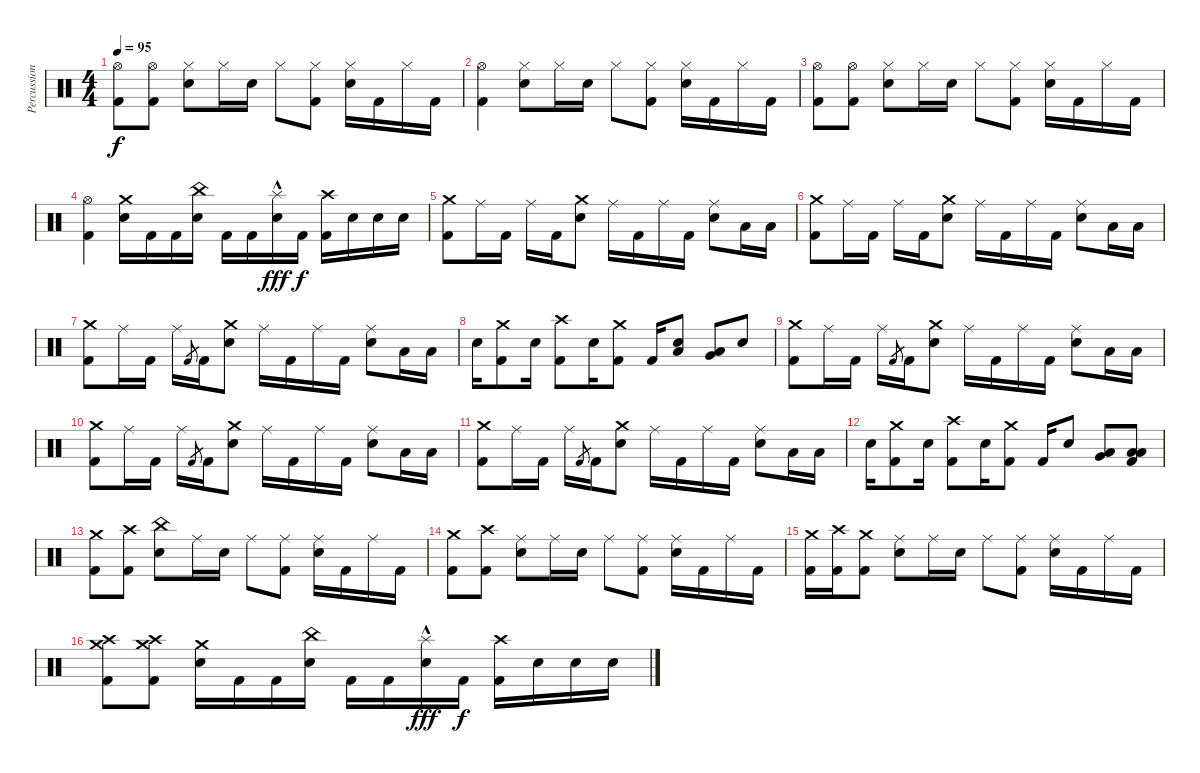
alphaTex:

\track ("Percussions" "Percussion") {instrument percussion}
\staff {score}
\articulation defaults
\ts (4 4)
\tempo 95
\clef neutral
\ks c
("Hi-Hat (open)" "Kick (hit) 2").8{dy f} ("Hi-Hat (open)" "Kick (hit) 2").8 ("Hi-Hat (closed)" "Electric Snare (hit)").8 "Hi-Hat (closed)".16 "Electric Snare (hit)".16 "Hi-Hat (closed)".8 ("Hi-Hat (closed)" "Kick (hit) 2").8 ("Hi-Hat (closed)" "Electric Snare (hit)").16 "Kick (hit) 2".16 "Hi-Hat (closed)".16 "Kick (hit) 2".16 |
("Hi-Hat (open)" "Kick (hit) 2").4 ("Hi-Hat (closed)" "Electric Snare (hit)").8 "Hi-Hat (closed)".16 "Electric Snare (hit)".16 "Hi-Hat (closed)".8 ("Hi-Hat (closed)" "Kick (hit) 2").8 ("Hi-Hat (closed)" "Electric Snare (hit)").16 "Kick (hit) 2".16 "Hi-Hat (closed)".16 "Kick (hit) 2".16 |
("Hi-Hat (open)" "Kick (hit) 2").8 ("Hi-Hat (open)" "Kick (hit) 2").8 ("Hi-Hat (closed)" "Electric Snare (hit)").8 "Hi-Hat (closed)".16 "Electric Snare (hit)".16 "Hi-Hat (closed)".8 ("Hi-Hat (closed)" "Kick (hit) 2").8 ("Hi-Hat (closed)" "Electric Snare (hit)").16 "Kick (hit) 2".16 "Hi-Hat (closed)".16 "Kick (hit) 2".16 |
("Hi-Hat (open)" "Kick (hit) 2").4 ("Crash medium (hit)" "Electric Snare (hit)").16 "Kick (hit) 2".16 "Kick (hit) 2".16 ("China (hit)" "Electric Snare (hit)").16 "Kick (hit) 2".16 "Kick (hit) 2".16 ("Splash (hit)"{hac} "Electric Snare (hit)").16{dy fff} "Kick (hit) 2".16{dy f} ("Crash high (hit)" "Kick (hit) 2").16 "Electric Snare (hit)".16 "Electric Snare (hit)".16 "Electric Snare (hit)".16 |
("Crash medium (hit)" "Kick (hit) 2").8 "Ride (middle)".16 "Kick (hit) 2".16 "Ride (middle)".16 "Kick (hit) 2".16 ("Crash medium (hit)" "Electric Snare (hit)").8 "Ride (middle)".16 "Kick (hit) 2".16 "Ride (middle)".16 "Kick (hit) 2".16 ("Ride (middle)" "Electric Snare (hit)").8 "Low Tom (hit)".16 "Low Tom (hit)".16 |
("Crash medium (hit)" "Kick (hit) 2").8 "Ride (middle)".16 "Kick (hit) 2".16 "Ride (middle)".16 "Kick (hit) 2".16 ("Crash medium (hit)" "Electric Snare (hit)").8 "Ride (middle)".16 "Kick (hit) 2".16 "Ride (middle)".16 "Kick (hit) 2".16 ("Ride (middle)" "Electric Snare (hit)").8 "Low Tom (hit)".16 "Low Tom (hit)".16 |
("Crash medium (hit)" "Kick (hit) 2").8 "Ride (middle)".16 "Kick (hit) 2".16 "Ride (middle)".16 "Kick (hit) 2".8{gr} "Kick (hit) 2".16 ("Crash medium (hit)" "Electric Snare (hit)").8 "Ride (middle)".16 "Kick (hit) 2".16 "Ride (middle)".16 "Kick (hit) 2".16 ("Ride (middle)" "Electric Snare (hit)").8 "Low Tom (hit)".16 "Low Tom (hit)".16 |
"Electric Snare (hit)".16 ("Crash medium (hit)" "Kick (hit) 2").8 "Electric Snare (hit)".16 ("Crash high (hit)" "Kick (hit) 2").8 "Electric Snare (hit)".16 ("Crash medium (hit)" "Kick (hit) 2").8 "Kick (hit) 2".16 ("Electric Snare (hit)" "Low Floor Tom (hit)").8 ("Very Low Tom (hit)" "Low Floor Tom (hit)").8 "Electric Snare (hit)".8 |
("Crash medium (hit)" "Kick (hit) 2").8 "Ride (middle)".16 "Kick (hit) 2".16 "Ride (middle)".16 "Kick (hit) 2".8{gr} "Kick (hit) 2".16 ("Crash medium (hit)" "Electric Snare (hit)").8 "Ride (middle)".16 "Kick (hit) 2".16 "Ride (middle)".16 "Kick (hit) 2".16 ("Ride (middle)" "Electric Snare (hit)").8 "Low Tom (hit)".16 "Low Tom (hit)".16 |
("Crash medium (hit)" "Kick (hit) 2").8 "Ride (middle)".16 "Kick (hit) 2".16 "Ride (middle)".16 "Kick (hit) 2".8{gr} "Kick (hit) 2".16 ("Crash medium (hit)" "Electric Snare (hit)").8 "Ride (middle)".16 "Kick (hit) 2".16 "Ride (middle)".16 "Kick (hit) 2".16 ("Ride (middle)" "Electric Snare (hit)").8 "Low Tom (hit)".16 "Low Tom (hit)".16 |
("Crash medium (hit)" "Kick (hit) 2").8 "Ride (middle)".16 "Kick (hit) 2".16 "Ride (middle)".16 "Kick (hit) 2".8{gr} "Kick (hit) 2".16 ("Crash medium (hit)" "Electric Snare (hit)").8 "Ride (middle)".16 "Kick (hit) 2".16 "Ride (middle)".16 "Kick (hit) 2".16 ("Ride (middle)" "Electric Snare (hit)").8 "Low Tom (hit)".16 "Low Tom (hit)".16 |
"Electric Snare (hit)".16 ("Crash medium (hit)" "Kick (hit) 2").8 "Electric Snare (hit)".16 ("Crash high (hit)" "Kick (hit) 2").8 "Electric Snare (hit)".16 ("Crash medium (hit)" "Kick (hit) 2").8 "Kick (hit) 2".16 "Electric Snare (hit)".8 ("Very Low Tom (hit)" "Low Floor Tom (hit)").8 ("Low Floor Tom (hit)" "Low Floor Tom (hit)" "Kick (hit) 2").8 |
("Crash medium (hit)" "Kick (hit) 2").8 ("Crash high (hit)" "Kick (hit) 2").8 ("China (hit)" "Electric Snare (hit)").8 "Ride (middle)".16 "Electric Snare (hit)".16 "Ride (middle)".8 ("Ride (middle)" "Kick (hit) 2").8 ("Ride (middle)" "Electric Snare (hit)").16 "Kick (hit) 2".16 "Ride (middle)".16 "Kick (hit) 2".16 |
("Crash medium (hit)" "Kick (hit) 2").8 ("Crash high (hit)" "Kick (hit) 2").8 ("Ride (middle)" "Electric Snare (hit)").8 "Ride (middle)".16 "Electric Snare (hit)".16 "Ride (middle)".8 ("Ride (middle)" "Kick (hit) 2").8 ("Ride (middle)" "Electric Snare (hit)").16 "Kick (hit) 2".16 "Ride (middle)".16 "Kick (hit) 2".16 |
("Crash medium (hit)" "Kick (hit) 2").16 ("Crash high (hit)" "Kick (hit) 2").16 ("Crash medium (hit)" "Kick (hit) 2").8 ("Ride (middle)" "Electric Snare (hit)").8 "Ride (middle)".16 "Electric Snare (hit)".16 "Ride (middle)".8 ("Ride (middle)" "Kick (hit) 2").8 ("Ride (middle)" "Electric Snare (hit)").16 "Kick (hit) 2".16 "Ride (middle)".16 "Kick (hit) 2".16 |
("Crash medium (hit)" "Crash high (hit)" "Kick (hit) 2").8 ("Crash high (hit)" "Crash medium (hit)" "Kick (hit) 2").8 ("Crash medium (hit)" "Electric Snare (hit)").16 "Kick (hit) 2".16 "Kick (hit) 2".16 ("China (hit)" "Electric Snare (hit)").16 "Kick (hit) 2".16 "Kick (hit) 2".16 ("Splash (hit)"{hac} "Electric Snare (hit)").16{dy fff} "Kick (hit) 2".16{dy f} ("Crash high (hit)" "Kick (hit) 2").16 "Electric Snare (hit)".16 "Electric Snare (hit)".16 "Electric Snare (hit)".16
